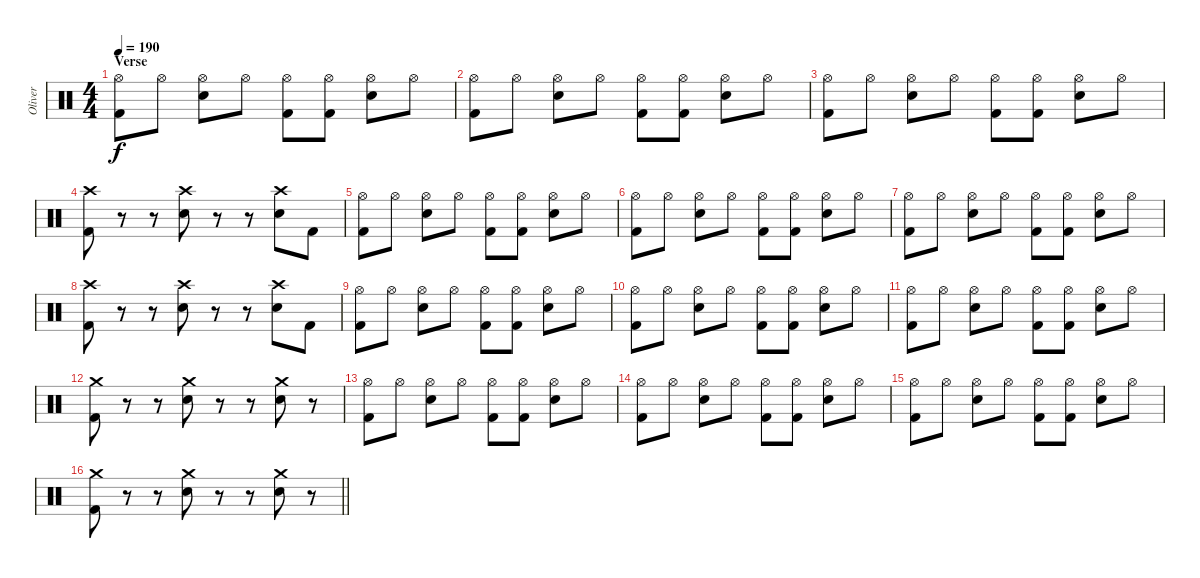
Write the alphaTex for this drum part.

\track ("Oliver" "Oliver") {instrument percussion}
\staff {score}
\articulation defaults
\ts (4 4)
\section ("" "Verse")
\tempo 190
\clef neutral
\ks c
("Hi-Hat (open)" "Kick (hit) 2").8{dy f} "Hi-Hat (open)".8 ("Hi-Hat (open)" "Snare (hit) 2").8 "Hi-Hat (open)".8 ("Hi-Hat (open)" "Kick (hit) 2").8 ("Hi-Hat (open)" "Kick (hit) 2").8 ("Hi-Hat (open)" "Snare (hit) 2").8 "Hi-Hat (open)".8 |
("Hi-Hat (open)" "Kick (hit) 2").8 "Hi-Hat (open)".8 ("Hi-Hat (open)" "Snare (hit) 2").8 "Hi-Hat (open)".8 ("Hi-Hat (open)" "Kick (hit) 2").8 ("Hi-Hat (open)" "Kick (hit) 2").8 ("Hi-Hat (open)" "Snare (hit) 2").8 "Hi-Hat (open)".8 |
("Hi-Hat (open)" "Kick (hit) 2").8 "Hi-Hat (open)".8 ("Hi-Hat (open)" "Snare (hit) 2").8 "Hi-Hat (open)".8 ("Hi-Hat (open)" "Kick (hit) 2").8 ("Hi-Hat (open)" "Kick (hit) 2").8 ("Hi-Hat (open)" "Snare (hit) 2").8 "Hi-Hat (open)".8 |
("Crash high (hit)" "Kick (hit) 2").8 r.8 r.8 ("Crash high (hit)" "Snare (hit) 2").8 r.8 r.8 ("Crash high (hit)" "Snare (hit) 2").8 "Kick (hit) 2".8 |
("Hi-Hat (open)" "Kick (hit) 2").8 "Hi-Hat (open)".8 ("Hi-Hat (open)" "Snare (hit) 2").8 "Hi-Hat (open)".8 ("Hi-Hat (open)" "Kick (hit) 2").8 ("Hi-Hat (open)" "Kick (hit) 2").8 ("Hi-Hat (open)" "Snare (hit) 2").8 "Hi-Hat (open)".8 |
("Hi-Hat (open)" "Kick (hit) 2").8 "Hi-Hat (open)".8 ("Hi-Hat (open)" "Snare (hit) 2").8 "Hi-Hat (open)".8 ("Hi-Hat (open)" "Kick (hit) 2").8 ("Hi-Hat (open)" "Kick (hit) 2").8 ("Hi-Hat (open)" "Snare (hit) 2").8 "Hi-Hat (open)".8 |
("Hi-Hat (open)" "Kick (hit) 2").8 "Hi-Hat (open)".8 ("Hi-Hat (open)" "Snare (hit) 2").8 "Hi-Hat (open)".8 ("Hi-Hat (open)" "Kick (hit) 2").8 ("Hi-Hat (open)" "Kick (hit) 2").8 ("Hi-Hat (open)" "Snare (hit) 2").8 "Hi-Hat (open)".8 |
("Crash high (hit)" "Kick (hit) 2").8 r.8 r.8 ("Crash high (hit)" "Snare (hit) 2").8 r.8 r.8 ("Crash high (hit)" "Snare (hit) 2").8 "Kick (hit) 2".8 |
("Hi-Hat (open)" "Kick (hit) 2").8 "Hi-Hat (open)".8 ("Hi-Hat (open)" "Snare (hit) 2").8 "Hi-Hat (open)".8 ("Hi-Hat (open)" "Kick (hit) 2").8 ("Hi-Hat (open)" "Kick (hit) 2").8 ("Hi-Hat (open)" "Snare (hit) 2").8 "Hi-Hat (open)".8 |
("Hi-Hat (open)" "Kick (hit) 2").8 "Hi-Hat (open)".8 ("Hi-Hat (open)" "Snare (hit) 2").8 "Hi-Hat (open)".8 ("Hi-Hat (open)" "Kick (hit) 2").8 ("Hi-Hat (open)" "Kick (hit) 2").8 ("Hi-Hat (open)" "Snare (hit) 2").8 "Hi-Hat (open)".8 |
("Hi-Hat (open)" "Kick (hit) 2").8 "Hi-Hat (open)".8 ("Hi-Hat (open)" "Snare (hit) 2").8 "Hi-Hat (open)".8 ("Hi-Hat (open)" "Kick (hit) 2").8 ("Hi-Hat (open)" "Kick (hit) 2").8 ("Hi-Hat (open)" "Snare (hit) 2").8 "Hi-Hat (open)".8 |
("Crash medium (hit)" "Kick (hit) 2").8 r.8 r.8 ("Crash medium (hit)" "Snare (hit) 2").8 r.8 r.8 ("Crash medium (hit)" "Snare (hit) 2").8 r.8 |
("Hi-Hat (open)" "Kick (hit) 2").8 "Hi-Hat (open)".8 ("Hi-Hat (open)" "Snare (hit) 2").8 "Hi-Hat (open)".8 ("Hi-Hat (open)" "Kick (hit) 2").8 ("Hi-Hat (open)" "Kick (hit) 2").8 ("Hi-Hat (open)" "Snare (hit) 2").8 "Hi-Hat (open)".8 |
("Hi-Hat (open)" "Kick (hit) 2").8 "Hi-Hat (open)".8 ("Hi-Hat (open)" "Snare (hit) 2").8 "Hi-Hat (open)".8 ("Hi-Hat (open)" "Kick (hit) 2").8 ("Hi-Hat (open)" "Kick (hit) 2").8 ("Hi-Hat (open)" "Snare (hit) 2").8 "Hi-Hat (open)".8 |
("Hi-Hat (open)" "Kick (hit) 2").8 "Hi-Hat (open)".8 ("Hi-Hat (open)" "Snare (hit) 2").8 "Hi-Hat (open)".8 ("Hi-Hat (open)" "Kick (hit) 2").8 ("Hi-Hat (open)" "Kick (hit) 2").8 ("Hi-Hat (open)" "Snare (hit) 2").8 "Hi-Hat (open)".8 |
\barLineRight lightlight
("Crash medium (hit)" "Kick (hit) 2").8 r.8 r.8 ("Crash medium (hit)" "Snare (hit) 2").8 r.8 r.8 ("Crash medium (hit)" "Snare (hit) 2").8 r.8
